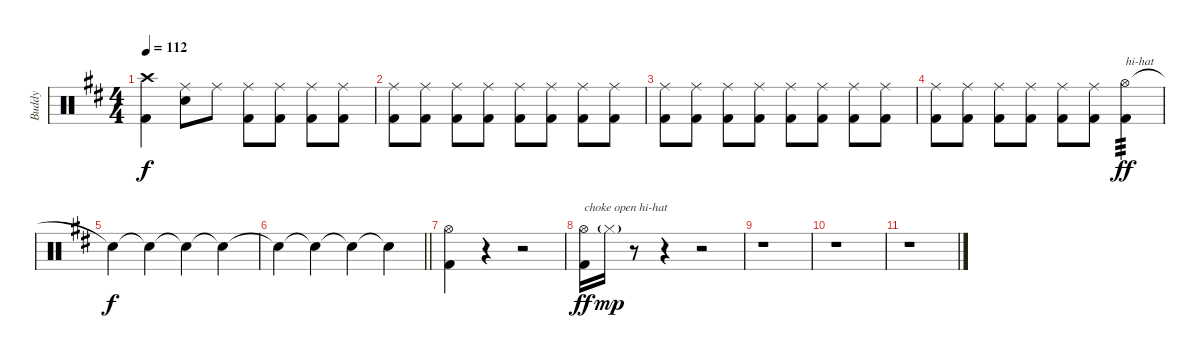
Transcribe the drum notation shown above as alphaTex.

\track ("Buddy " "Buddy ") {instrument percussion}
\staff {score}
\articulation defaults
\ts (4 4)
\tempo 112
\clef neutral
\ks d
("Crash high (hit)" "Kick (hit) 2").4{dy f} ("Ride (middle)" "Snare (hit) 2").8 "Ride (middle)".8 ("Ride (middle)" "Kick (hit) 2").8 ("Ride (middle)" "Kick (hit) 2").8 ("Ride (middle)" "Kick (hit) 2").8 ("Ride (middle)" "Kick (hit) 2").8 |
("Ride (middle)" "Kick (hit) 2").8 ("Ride (middle)" "Kick (hit) 2").8 ("Ride (middle)" "Kick (hit) 2").8 ("Ride (middle)" "Kick (hit) 2").8 ("Ride (middle)" "Kick (hit) 2").8 ("Ride (middle)" "Kick (hit) 2").8 ("Ride (middle)" "Kick (hit) 2").8 ("Ride (middle)" "Kick (hit) 2").8 |
("Ride (middle)" "Kick (hit) 2").8 ("Ride (middle)" "Kick (hit) 2").8 ("Ride (middle)" "Kick (hit) 2").8 ("Ride (middle)" "Kick (hit) 2").8 ("Ride (middle)" "Kick (hit) 2").8 ("Ride (middle)" "Kick (hit) 2").8 ("Ride (middle)" "Kick (hit) 2").8 ("Ride (middle)" "Kick (hit) 2").8 |
("Ride (middle)" "Kick (hit) 2").8 ("Ride (middle)" "Kick (hit) 2").8 ("Ride (middle)" "Kick (hit) 2").8 ("Ride (middle)" "Kick (hit) 2").8 ("Ride (middle)" "Kick (hit) 2").8 ("Ride (middle)" "Kick (hit) 2").8 ("Hi-Hat (open)" "Kick (hit) 2").4{txt "hi-hat" tp 3 dy ff} |
"Snare (hit)"{t}.4{dy f} "Snare (hit)"{t}.4 "Snare (hit)"{t}.4 "Snare (hit)"{t}.4 |
\barLineRight lightlight "Snare (hit)"{t}.4 "Snare (hit)"{t}.4 "Snare (hit)"{t}.4 "Snare (hit)"{t}.4
|
("Hi-Hat (open)" "Kick (hit) 2").4 r.4 r.2 |
("Hi-Hat (open)" "Kick (hit) 2").16{txt "choke open hi-hat" dy ff} "Hi-Hat (closed)"{g}.16{dy mp} r.8 r.4 r.2 |
r.1 |
r.1 |
r.1
